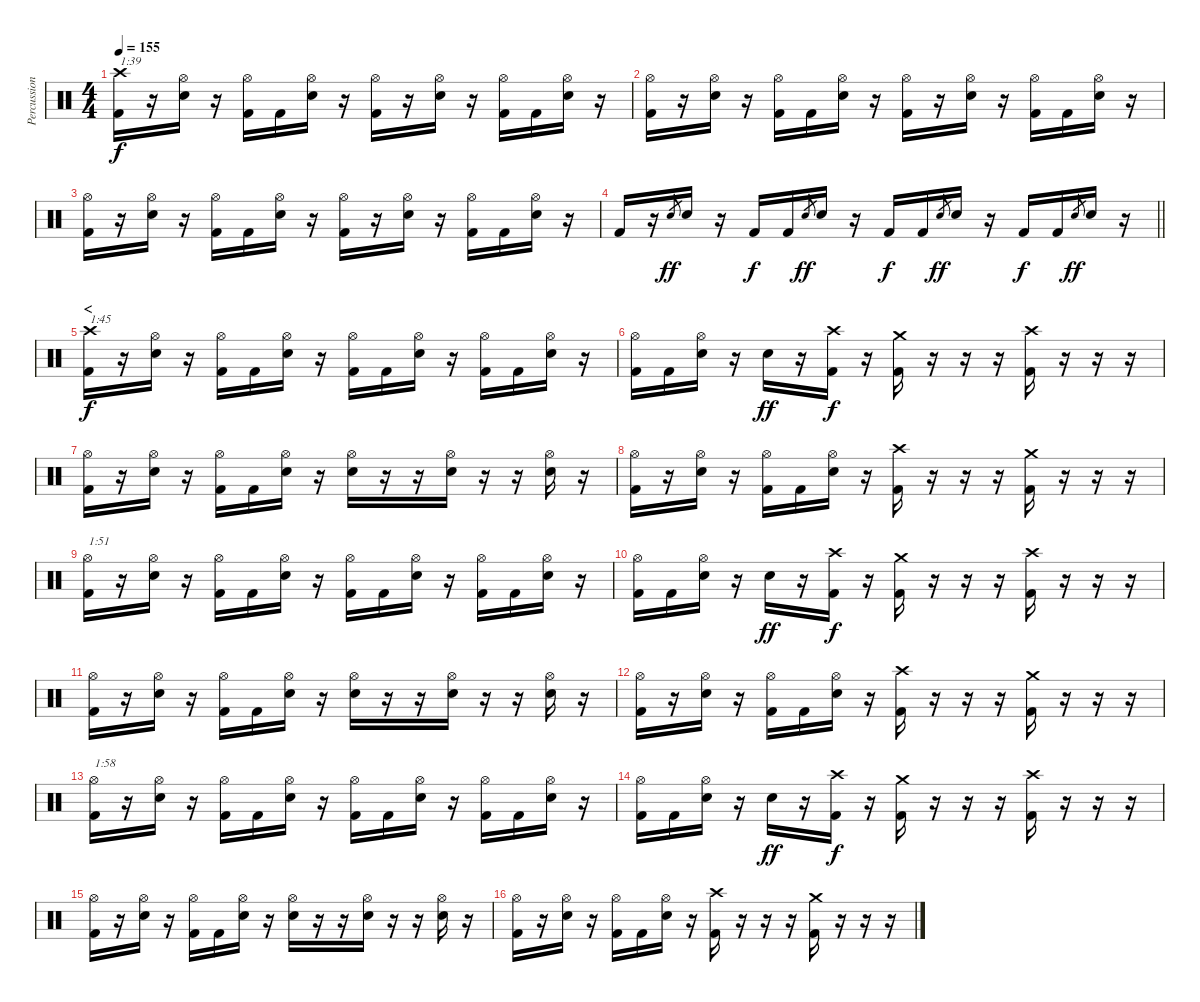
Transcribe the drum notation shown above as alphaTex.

\track ("Percussion" "Percussion") {instrument percussion}
\staff {score}
\articulation defaults
\ts (4 4)
\tempo 155
\clef neutral
\ks c
("Crash high (hit)" "Kick (hit) 2").16{txt "1:39" dy f} r.16 ("Hi-Hat (open)" "Snare (hit) 2").16 r.16 ("Hi-Hat (open)" "Kick (hit) 2").16 "Kick (hit) 2".16 ("Hi-Hat (open)" "Snare (hit) 2").16 r.16 ("Hi-Hat (open)" "Kick (hit) 2").16 r.16 ("Hi-Hat (open)" "Snare (hit) 2").16 r.16 ("Hi-Hat (open)" "Kick (hit) 2").16 "Kick (hit) 2".16 ("Hi-Hat (open)" "Snare (hit) 2").16 r.16 |
("Hi-Hat (open)" "Kick (hit) 2").16 r.16 ("Hi-Hat (open)" "Snare (hit) 2").16 r.16 ("Hi-Hat (open)" "Kick (hit) 2").16 "Kick (hit) 2".16 ("Hi-Hat (open)" "Snare (hit) 2").16 r.16 ("Hi-Hat (open)" "Kick (hit) 2").16 r.16 ("Hi-Hat (open)" "Snare (hit) 2").16 r.16 ("Hi-Hat (open)" "Kick (hit) 2").16 "Kick (hit) 2".16 ("Hi-Hat (open)" "Snare (hit) 2").16 r.16 |
("Hi-Hat (open)" "Kick (hit) 2").16 r.16 ("Hi-Hat (open)" "Snare (hit) 2").16 r.16 ("Hi-Hat (open)" "Kick (hit) 2").16 "Kick (hit) 2".16 ("Hi-Hat (open)" "Snare (hit) 2").16 r.16 ("Hi-Hat (open)" "Kick (hit) 2").16 r.16 ("Hi-Hat (open)" "Snare (hit) 2").16 r.16 ("Hi-Hat (open)" "Kick (hit) 2").16 "Kick (hit) 2".16 ("Hi-Hat (open)" "Snare (hit) 2").16 r.16 |
\barLineRight lightlight "Kick (hit) 2".16
r.16 "Snare (hit) 2".8{gr dy ff} "Snare (hit) 2".16 r.16 "Kick (hit) 2".16{dy f} "Kick (hit) 2".16 "Snare (hit) 2".8{gr dy ff} "Snare (hit) 2".16 r.16 "Kick (hit) 2".16{dy f} "Kick (hit) 2".16 "Snare (hit) 2".8{gr dy ff} "Snare (hit) 2".16 r.16 "Kick (hit) 2".16{dy f} "Kick (hit) 2".16 "Snare (hit) 2".8{gr dy ff} "Snare (hit) 2".16 r.16 |
\section ("" "<")
("Crash high (hit)" "Kick (hit) 2").16{txt "1:45" dy f} r.16 ("Hi-Hat (open)" "Snare (hit) 2").16 r.16 ("Hi-Hat (open)" "Kick (hit) 2").16 "Kick (hit) 2".16 ("Hi-Hat (open)" "Snare (hit) 2").16 r.16 ("Hi-Hat (open)" "Kick (hit) 2").16 "Kick (hit) 2".16 ("Hi-Hat (open)" "Snare (hit) 2").16 r.16 ("Hi-Hat (open)" "Kick (hit) 2").16 "Kick (hit) 2".16 ("Hi-Hat (open)" "Snare (hit) 2").16 r.16 |
("Hi-Hat (open)" "Kick (hit) 2").16 "Kick (hit) 2".16 ("Hi-Hat (open)" "Snare (hit) 2").16 r.16 "Snare (hit) 2".16{dy ff} r.16 ("Crash high (hit)" "Kick (hit) 2").16{dy f} r.16 ("Crash medium (hit)" "Kick (hit) 2").16 r.16 r.16 r.16 ("Crash high (hit)" "Kick (hit) 2").16 r.16 r.16 r.16 |
("Hi-Hat (open)" "Kick (hit) 2").16 r.16 ("Hi-Hat (open)" "Snare (hit) 2").16 r.16 ("Hi-Hat (open)" "Kick (hit) 2").16 "Kick (hit) 2".16 ("Hi-Hat (open)" "Snare (hit) 2").16 r.16 ("Hi-Hat (open)" "Snare (hit) 2").16 r.16 r.16 ("Hi-Hat (open)" "Snare (hit) 2").16 r.16 r.16 ("Hi-Hat (open)" "Snare (hit) 2").16 r.16 |
("Hi-Hat (open)" "Kick (hit) 2").16 r.16 ("Hi-Hat (open)" "Snare (hit) 2").16 r.16 ("Hi-Hat (open)" "Kick (hit) 2").16 "Kick (hit) 2".16 ("Hi-Hat (open)" "Snare (hit) 2").16 r.16 ("Crash high (hit)" "Kick (hit) 2").16 r.16 r.16 r.16 ("Crash medium (hit)" "Kick (hit) 2").16 r.16 r.16 r.16 |
("Hi-Hat (open)" "Kick (hit) 2").16{txt "1:51"} r.16 ("Hi-Hat (open)" "Snare (hit) 2").16 r.16 ("Hi-Hat (open)" "Kick (hit) 2").16 "Kick (hit) 2".16 ("Hi-Hat (open)" "Snare (hit) 2").16 r.16 ("Hi-Hat (open)" "Kick (hit) 2").16 "Kick (hit) 2".16 ("Hi-Hat (open)" "Snare (hit) 2").16 r.16 ("Hi-Hat (open)" "Kick (hit) 2").16 "Kick (hit) 2".16 ("Hi-Hat (open)" "Snare (hit) 2").16 r.16 |
("Hi-Hat (open)" "Kick (hit) 2").16 "Kick (hit) 2".16 ("Hi-Hat (open)" "Snare (hit) 2").16 r.16 "Snare (hit) 2".16{dy ff} r.16 ("Crash high (hit)" "Kick (hit) 2").16{dy f} r.16 ("Crash medium (hit)" "Kick (hit) 2").16 r.16 r.16 r.16 ("Crash high (hit)" "Kick (hit) 2").16 r.16 r.16 r.16 |
("Hi-Hat (open)" "Kick (hit) 2").16 r.16 ("Hi-Hat (open)" "Snare (hit) 2").16 r.16 ("Hi-Hat (open)" "Kick (hit) 2").16 "Kick (hit) 2".16 ("Hi-Hat (open)" "Snare (hit) 2").16 r.16 ("Hi-Hat (open)" "Snare (hit) 2").16 r.16 r.16 ("Hi-Hat (open)" "Snare (hit) 2").16 r.16 r.16 ("Hi-Hat (open)" "Snare (hit) 2").16 r.16 |
("Hi-Hat (open)" "Kick (hit) 2").16 r.16 ("Hi-Hat (open)" "Snare (hit) 2").16 r.16 ("Hi-Hat (open)" "Kick (hit) 2").16 "Kick (hit) 2".16 ("Hi-Hat (open)" "Snare (hit) 2").16 r.16 ("Crash high (hit)" "Kick (hit) 2").16 r.16 r.16 r.16 ("Crash medium (hit)" "Kick (hit) 2").16 r.16 r.16 r.16 |
("Hi-Hat (open)" "Kick (hit) 2").16{txt "1:58"} r.16 ("Hi-Hat (open)" "Snare (hit) 2").16 r.16 ("Hi-Hat (open)" "Kick (hit) 2").16 "Kick (hit) 2".16 ("Hi-Hat (open)" "Snare (hit) 2").16 r.16 ("Hi-Hat (open)" "Kick (hit) 2").16 "Kick (hit) 2".16 ("Hi-Hat (open)" "Snare (hit) 2").16 r.16 ("Hi-Hat (open)" "Kick (hit) 2").16 "Kick (hit) 2".16 ("Hi-Hat (open)" "Snare (hit) 2").16 r.16 |
("Hi-Hat (open)" "Kick (hit) 2").16 "Kick (hit) 2".16 ("Hi-Hat (open)" "Snare (hit) 2").16 r.16 "Snare (hit) 2".16{dy ff} r.16 ("Crash high (hit)" "Kick (hit) 2").16{dy f} r.16 ("Crash medium (hit)" "Kick (hit) 2").16 r.16 r.16 r.16 ("Crash high (hit)" "Kick (hit) 2").16 r.16 r.16 r.16 |
("Hi-Hat (open)" "Kick (hit) 2").16 r.16 ("Hi-Hat (open)" "Snare (hit) 2").16 r.16 ("Hi-Hat (open)" "Kick (hit) 2").16 "Kick (hit) 2".16 ("Hi-Hat (open)" "Snare (hit) 2").16 r.16 ("Hi-Hat (open)" "Snare (hit) 2").16 r.16 r.16 ("Hi-Hat (open)" "Snare (hit) 2").16 r.16 r.16 ("Hi-Hat (open)" "Snare (hit) 2").16 r.16 |
("Hi-Hat (open)" "Kick (hit) 2").16 r.16 ("Hi-Hat (open)" "Snare (hit) 2").16 r.16 ("Hi-Hat (open)" "Kick (hit) 2").16 "Kick (hit) 2".16 ("Hi-Hat (open)" "Snare (hit) 2").16 r.16 ("Crash high (hit)" "Kick (hit) 2").16 r.16 r.16 r.16 ("Crash medium (hit)" "Kick (hit) 2").16 r.16 r.16 r.16
